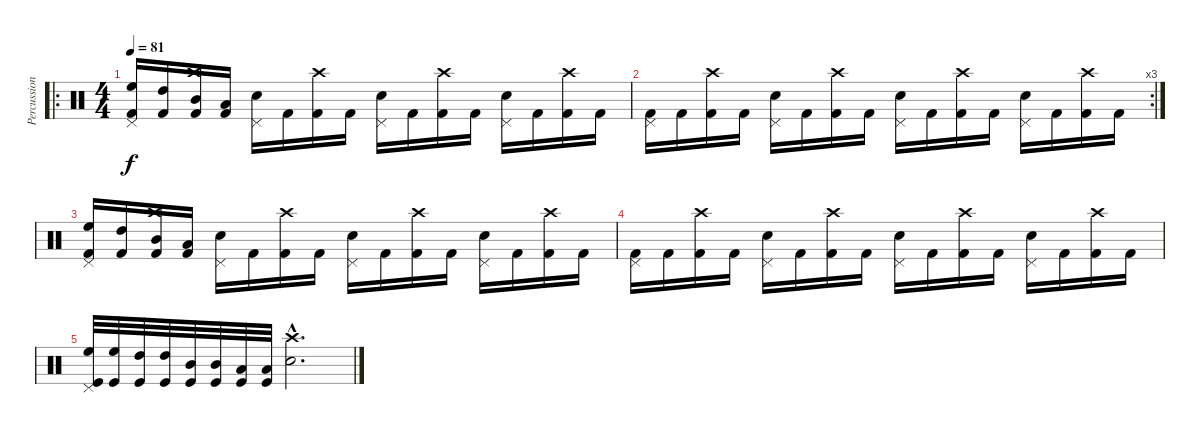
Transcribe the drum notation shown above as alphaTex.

\track ("Percussions" "Percussion") {instrument percussion}
\staff {score}
\articulation defaults
\ro
\ts (4 4)
\tempo 81
\clef neutral
\ks c
("Pedal Hi-Hat (hit)" "High Floor Tom (hit)" "Kick (hit) 2").16{dy f} ("High Tom (hit)" "Kick (hit) 2").16 ("Crash high (hit)" "Mid Tom (hit)" "Kick (hit) 2").16 ("Low Tom (hit)" "Kick (hit) 2").16 ("Pedal Hi-Hat (hit)" "Snare (hit) 2").16 "Kick (hit) 2".16 ("Crash high (hit)" "Kick (hit) 2").16 "Kick (hit) 2".16 ("Pedal Hi-Hat (hit)" "Snare (hit) 2").16 "Kick (hit) 2".16 ("Crash high (hit)" "Kick (hit) 2").16 "Kick (hit) 2".16 ("Pedal Hi-Hat (hit)" "Snare (hit) 2").16 "Kick (hit) 2".16 ("Crash high (hit)" "Kick (hit) 2").16 "Kick (hit) 2".16 |
\rc 3
("Pedal Hi-Hat (hit)" "Kick (hit) 2").16 "Kick (hit) 2".16 ("Crash high (hit)" "Kick (hit) 2").16 "Kick (hit) 2".16 ("Pedal Hi-Hat (hit)" "Snare (hit) 2").16 "Kick (hit) 2".16 ("Crash high (hit)" "Kick (hit) 2").16 "Kick (hit) 2".16 ("Pedal Hi-Hat (hit)" "Snare (hit) 2").16 "Kick (hit) 2".16 ("Crash high (hit)" "Kick (hit) 2").16 "Kick (hit) 2".16 ("Pedal Hi-Hat (hit)" "Snare (hit) 2").16 "Kick (hit) 2".16 ("Crash high (hit)" "Kick (hit) 2").16 "Kick (hit) 2".16 |
("Pedal Hi-Hat (hit)" "High Floor Tom (hit)" "Kick (hit) 2").16 ("High Tom (hit)" "Kick (hit) 2").16 ("Crash high (hit)" "Mid Tom (hit)" "Kick (hit) 2").16 ("Low Tom (hit)" "Kick (hit) 2").16 ("Pedal Hi-Hat (hit)" "Snare (hit) 2").16 "Kick (hit) 2".16 ("Crash high (hit)" "Kick (hit) 2").16 "Kick (hit) 2".16 ("Pedal Hi-Hat (hit)" "Snare (hit) 2").16 "Kick (hit) 2".16 ("Crash high (hit)" "Kick (hit) 2").16 "Kick (hit) 2".16 ("Pedal Hi-Hat (hit)" "Snare (hit) 2").16 "Kick (hit) 2".16 ("Crash high (hit)" "Kick (hit) 2").16 "Kick (hit) 2".16 |
("Pedal Hi-Hat (hit)" "Kick (hit) 2").16 "Kick (hit) 2".16 ("Crash high (hit)" "Kick (hit) 2").16 "Kick (hit) 2".16 ("Pedal Hi-Hat (hit)" "Snare (hit) 2").16 "Kick (hit) 2".16 ("Crash high (hit)" "Kick (hit) 2").16 "Kick (hit) 2".16 ("Pedal Hi-Hat (hit)" "Snare (hit) 2").16 "Kick (hit) 2".16 ("Crash high (hit)" "Kick (hit) 2").16 "Kick (hit) 2".16 ("Pedal Hi-Hat (hit)" "Snare (hit) 2").16 "Kick (hit) 2".16 ("Crash high (hit)" "Kick (hit) 2").16 "Kick (hit) 2".16 |
("Pedal Hi-Hat (hit)" "High Floor Tom (hit)" "Kick (hit)").32 ("High Floor Tom (hit)" "Kick (hit)").32 ("High Tom (hit)" "Kick (hit)").32 ("High Tom (hit)" "Kick (hit)").32 ("Mid Tom (hit)" "Kick (hit)").32 ("Mid Tom (hit)" "Kick (hit)").32 ("Low Tom (hit)" "Kick (hit)").32 ("Low Tom (hit)" "Kick (hit)").32 ("Crash high (hit)"{hac} "Snare (hit) 2"{hac}).2{d}
